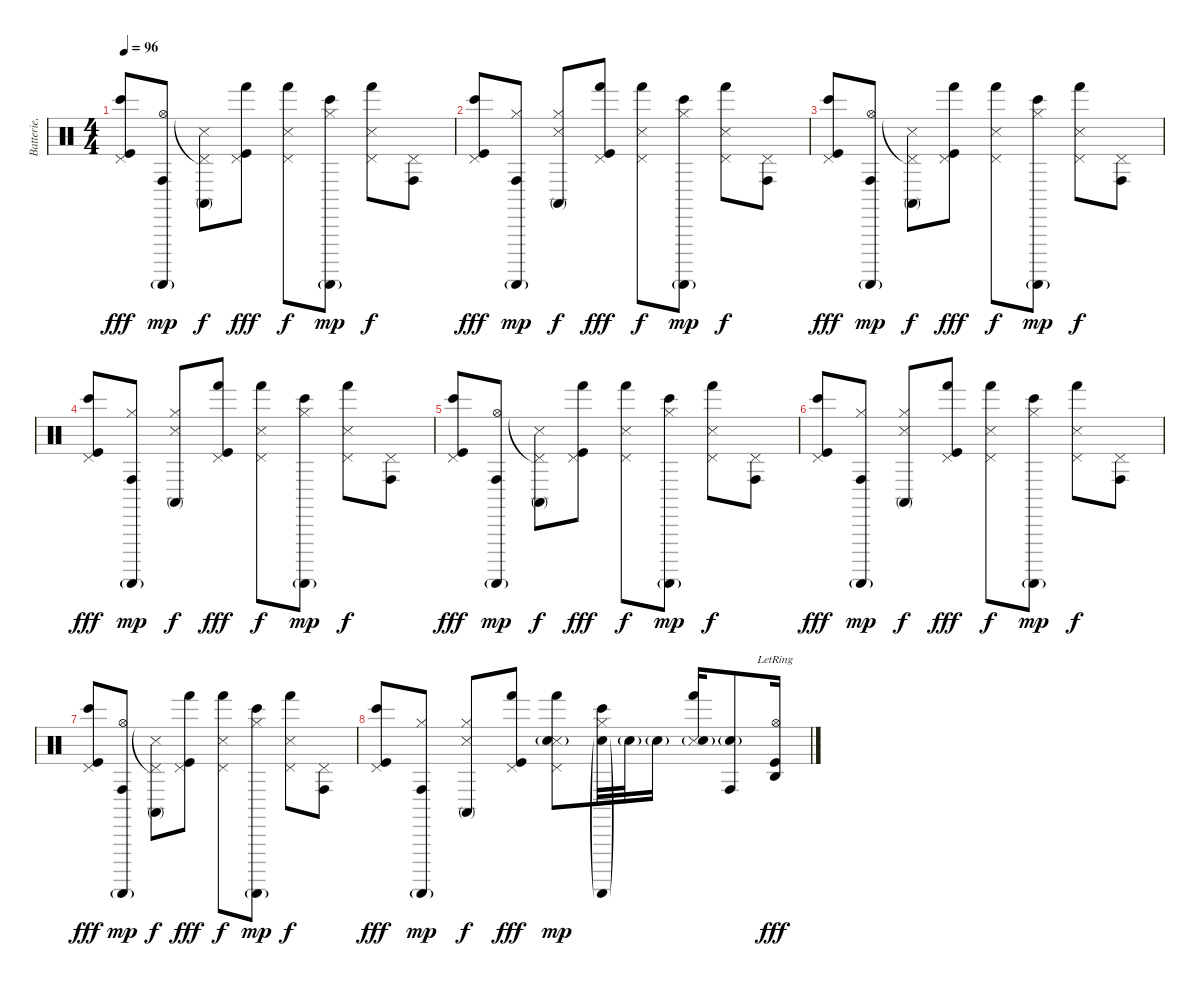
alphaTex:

\track ("Batterie, percu." "Batterie, ") {instrument percussion}
\staff {score}
\articulation defaults
\ts (4 4)
\tempo 96
\clef neutral
\ks c
("Pedal Hi-Hat (hit)" "Bongo High (hit)" "Kick (hit)").8{dy fff} ("Hi-Hat (open)" "Conga high (hit)" "Guiro (scrap-return)"{g}).8{dy mp} ("Pedal Hi-Hat (hit)"{t} "Conga high (mute)" "Snare (side stick) 3").8{dy f} ("Pedal Hi-Hat (hit)" "Hand (hit)" "Kick (hit)").8{dy fff} ("Pedal Hi-Hat (hit)" "Hand (hit)" "Snare (side stick) 3").8{dy f} ("Hi-Hat (closed)" "Bongo High (hit)" "Guiro (scrap-return)"{g}).8{dy mp} ("Pedal Hi-Hat (hit)" "Hand (hit)" "Snare (side stick) 3").8{dy f} ("Pedal Hi-Hat (hit)" "Conga high (hit)").8 |
("Pedal Hi-Hat (hit)" "Bongo High (hit)" "Kick (hit)").8{dy fff} ("Hi-Hat (closed)" "Conga high (hit)" "Guiro (scrap-return)"{g}).8{dy mp} ("Hi-Hat (closed)" "Conga high (mute)" "Snare (side stick) 3").8{dy f} ("Pedal Hi-Hat (hit)" "Hand (hit)" "Kick (hit)").8{dy fff} ("Pedal Hi-Hat (hit)" "Hand (hit)" "Snare (side stick) 3").8{dy f} ("Hi-Hat (closed)" "Bongo High (hit)" "Guiro (scrap-return)"{g}).8{dy mp} ("Pedal Hi-Hat (hit)" "Hand (hit)" "Snare (side stick) 3").8{dy f} ("Pedal Hi-Hat (hit)" "Conga high (hit)").8 |
("Pedal Hi-Hat (hit)" "Bongo High (hit)" "Kick (hit)").8{dy fff} ("Hi-Hat (open)" "Conga high (hit)" "Guiro (scrap-return)"{g}).8{dy mp} ("Pedal Hi-Hat (hit)"{t} "Conga high (mute)" "Snare (side stick) 3").8{dy f} ("Pedal Hi-Hat (hit)" "Hand (hit)" "Kick (hit)").8{dy fff} ("Pedal Hi-Hat (hit)" "Hand (hit)" "Snare (side stick) 3").8{dy f} ("Hi-Hat (closed)" "Bongo High (hit)" "Guiro (scrap-return)"{g}).8{dy mp} ("Pedal Hi-Hat (hit)" "Hand (hit)" "Snare (side stick) 3").8{dy f} ("Pedal Hi-Hat (hit)" "Conga high (hit)").8 |
("Pedal Hi-Hat (hit)" "Bongo High (hit)" "Kick (hit)").8{dy fff} ("Hi-Hat (closed)" "Conga high (hit)" "Guiro (scrap-return)"{g}).8{dy mp} ("Hi-Hat (closed)" "Conga high (mute)" "Snare (side stick) 3").8{dy f} ("Pedal Hi-Hat (hit)" "Hand (hit)" "Kick (hit)").8{dy fff} ("Pedal Hi-Hat (hit)" "Hand (hit)" "Snare (side stick) 3").8{dy f} ("Hi-Hat (closed)" "Bongo High (hit)" "Guiro (scrap-return)"{g}).8{dy mp} ("Pedal Hi-Hat (hit)" "Hand (hit)" "Snare (side stick) 3").8{dy f} ("Pedal Hi-Hat (hit)" "Conga high (hit)").8 |
("Pedal Hi-Hat (hit)" "Bongo High (hit)" "Kick (hit)").8{dy fff} ("Hi-Hat (open)" "Conga high (hit)" "Guiro (scrap-return)"{g}).8{dy mp} ("Pedal Hi-Hat (hit)"{t} "Conga high (mute)" "Snare (side stick) 3").8{dy f} ("Pedal Hi-Hat (hit)" "Hand (hit)" "Kick (hit)").8{dy fff} ("Pedal Hi-Hat (hit)" "Hand (hit)" "Snare (side stick) 3").8{dy f} ("Hi-Hat (closed)" "Bongo High (hit)" "Guiro (scrap-return)"{g}).8{dy mp} ("Pedal Hi-Hat (hit)" "Hand (hit)" "Snare (side stick) 3").8{dy f} ("Pedal Hi-Hat (hit)" "Conga high (hit)").8 |
("Pedal Hi-Hat (hit)" "Bongo High (hit)" "Kick (hit)").8{dy fff} ("Hi-Hat (closed)" "Conga high (hit)" "Guiro (scrap-return)"{g}).8{dy mp} ("Hi-Hat (closed)" "Conga high (mute)" "Snare (side stick) 3").8{dy f} ("Pedal Hi-Hat (hit)" "Hand (hit)" "Kick (hit)").8{dy fff} ("Pedal Hi-Hat (hit)" "Hand (hit)" "Snare (side stick) 3").8{dy f} ("Hi-Hat (closed)" "Bongo High (hit)" "Guiro (scrap-return)"{g}).8{dy mp} ("Pedal Hi-Hat (hit)" "Hand (hit)" "Snare (side stick) 3").8{dy f} ("Pedal Hi-Hat (hit)" "Conga high (hit)").8 |
("Pedal Hi-Hat (hit)" "Bongo High (hit)" "Kick (hit)").8{dy fff} ("Hi-Hat (open)" "Conga high (hit)" "Guiro (scrap-return)"{g}).8{dy mp} ("Pedal Hi-Hat (hit)"{t} "Conga high (mute)" "Snare (side stick) 3").8{dy f} ("Pedal Hi-Hat (hit)" "Hand (hit)" "Kick (hit)").8{dy fff} ("Pedal Hi-Hat (hit)" "Hand (hit)" "Snare (side stick) 3").8{dy f} ("Hi-Hat (closed)" "Bongo High (hit)" "Guiro (scrap-return)"{g}).8{dy mp} ("Pedal Hi-Hat (hit)" "Hand (hit)" "Snare (side stick) 3").8{dy f} ("Pedal Hi-Hat (hit)" "Conga high (hit)").8 |
("Pedal Hi-Hat (hit)" "Bongo High (hit)" "Kick (hit)").8{dy fff} ("Hi-Hat (closed)" "Conga high (hit)" "Guiro (scrap-return)"{g}).8{dy mp} ("Hi-Hat (closed)" "Conga high (mute)" "Snare (side stick) 3").8{dy f} ("Pedal Hi-Hat (hit)" "Hand (hit)" "Kick (hit)").8{dy fff} ("Pedal Hi-Hat (hit)" "Hand (hit)" "Snare (side stick) 3" "Snare (hit) 2"{g}).8{dy mp} ("Hi-Hat (closed)" "Bongo High (hit)" "Guiro (scrap-return)"{g} "Snare (hit) 2"{g}).32 "Snare (hit) 2"{g}.32 "Snare (hit) 2"{g}.16 ("Hand (hit)" "Snare (side stick) 3" "Snare (hit) 2"{g}).16 ("Conga high (hit)" "Snare (hit) 2"{g}).8 ("Hi-Hat (open)"{lr} "Kick (hit)" "Agogo high (hit)").16{dy fff}
